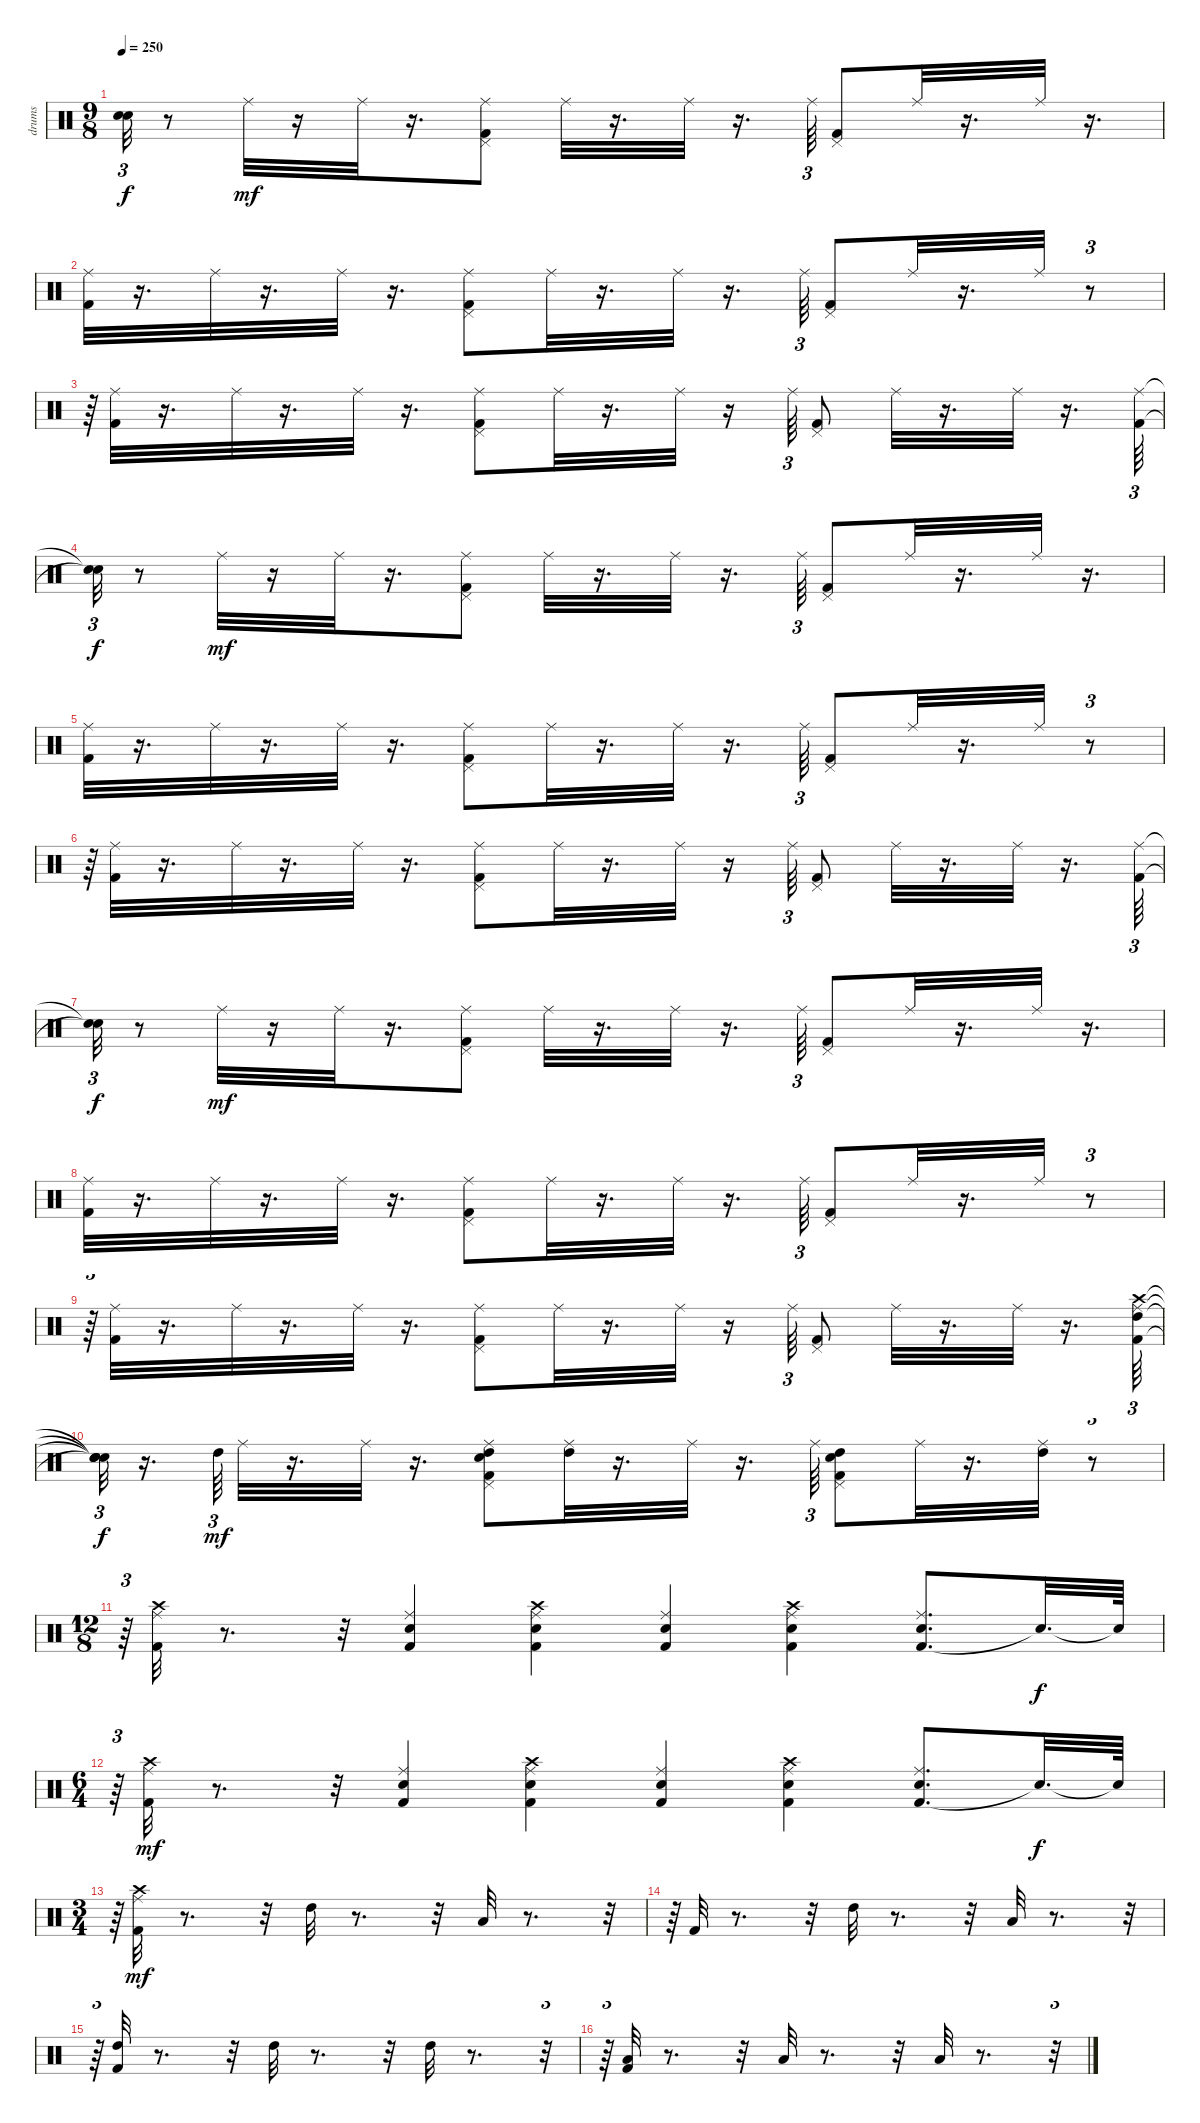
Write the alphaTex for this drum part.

\track ("drums               " "drums     ") {instrument percussion}
\staff {score}
\articulation defaults
\ts (9 8)
\tempo 250
\clef neutral
\ks c
("Snare (hit)"{t} "Snare (hit)"{t}).32{tu (3 2) dy f} r.8 "Ride (middle)".32{dy mf} r.16 "Ride (middle)".32 r.16{d} ("Pedal Hi-Hat (hit)" "Kick (hit) 2" "Ride (middle)").8 "Ride (middle)".32 r.16{d} "Ride (middle)".32 r.16{d} "Ride (middle)".64{tu (3 2)} ("Kick (hit) 2" "Pedal Hi-Hat (hit)").8 "Ride (middle)".32 r.16{d} "Ride (middle)".32 r.16{d} |
("Kick (hit) 2" "Ride (middle)").32 r.16{d} "Ride (middle)".32 r.16{d} "Ride (middle)".32 r.16{d} ("Pedal Hi-Hat (hit)" "Kick (hit) 2" "Ride (middle)").8 "Ride (middle)".32 r.16{d} "Ride (middle)".32 r.16{d} "Ride (middle)".64{tu (3 2)} ("Kick (hit) 2" "Pedal Hi-Hat (hit)").8 "Ride (middle)".32 r.16{d} "Ride (middle)".32 r.8{tu (3 2)} |
r.64{tu (3 2)} ("Kick (hit) 2" "Ride (middle)").32 r.16{d} "Ride (middle)".32 r.16{d} "Ride (middle)".32 r.16{d} ("Pedal Hi-Hat (hit)" "Kick (hit) 2" "Ride (middle)").8 "Ride (middle)".32 r.16{d} "Ride (middle)".32 r.16 "Ride (middle)".64{tu (3 2)} ("Kick (hit) 2" "Pedal Hi-Hat (hit)").8 "Ride (middle)".32 r.16{d} "Ride (middle)".32 r.16{d} ("Kick (hit) 2" "Ride (middle)").64{tu (3 2)} |
("Snare (hit)"{t} "Snare (hit)"{t}).32{tu (3 2) dy f} r.8 "Ride (middle)".32{dy mf} r.16 "Ride (middle)".32 r.16{d} ("Pedal Hi-Hat (hit)" "Kick (hit) 2" "Ride (middle)").8 "Ride (middle)".32 r.16{d} "Ride (middle)".32 r.16{d} "Ride (middle)".64{tu (3 2)} ("Kick (hit) 2" "Pedal Hi-Hat (hit)").8 "Ride (middle)".32 r.16{d} "Ride (middle)".32 r.16{d} |
("Kick (hit) 2" "Ride (middle)").32 r.16{d} "Ride (middle)".32 r.16{d} "Ride (middle)".32 r.16{d} ("Pedal Hi-Hat (hit)" "Kick (hit) 2" "Ride (middle)").8 "Ride (middle)".32 r.16{d} "Ride (middle)".32 r.16{d} "Ride (middle)".64{tu (3 2)} ("Kick (hit) 2" "Pedal Hi-Hat (hit)").8 "Ride (middle)".32 r.16{d} "Ride (middle)".32 r.8{tu (3 2)} |
r.64{tu (3 2)} ("Kick (hit) 2" "Ride (middle)").32 r.16{d} "Ride (middle)".32 r.16{d} "Ride (middle)".32 r.16{d} ("Pedal Hi-Hat (hit)" "Kick (hit) 2" "Ride (middle)").8 "Ride (middle)".32 r.16{d} "Ride (middle)".32 r.16 "Ride (middle)".64{tu (3 2)} ("Kick (hit) 2" "Pedal Hi-Hat (hit)").8 "Ride (middle)".32 r.16{d} "Ride (middle)".32 r.16{d} ("Kick (hit) 2" "Ride (middle)").64{tu (3 2)} |
("Snare (hit)"{t} "Snare (hit)"{t}).32{tu (3 2) dy f} r.8 "Ride (middle)".32{dy mf} r.16 "Ride (middle)".32 r.16{d} ("Pedal Hi-Hat (hit)" "Kick (hit) 2" "Ride (middle)").8 "Ride (middle)".32 r.16{d} "Ride (middle)".32 r.16{d} "Ride (middle)".64{tu (3 2)} ("Kick (hit) 2" "Pedal Hi-Hat (hit)").8 "Ride (middle)".32 r.16{d} "Ride (middle)".32 r.16{d} |
("Kick (hit) 2" "Ride (middle)").32 r.16{d} "Ride (middle)".32 r.16{d} "Ride (middle)".32 r.16{d} ("Pedal Hi-Hat (hit)" "Kick (hit) 2" "Ride (middle)").8 "Ride (middle)".32 r.16{d} "Ride (middle)".32 r.16{d} "Ride (middle)".64{tu (3 2)} ("Kick (hit) 2" "Pedal Hi-Hat (hit)").8 "Ride (middle)".32 r.16{d} "Ride (middle)".32 r.8{tu (3 2)} |
r.64{tu (3 2)} ("Kick (hit) 2" "Ride (middle)").32 r.16{d} "Ride (middle)".32 r.16{d} "Ride (middle)".32 r.16{d} ("Pedal Hi-Hat (hit)" "Kick (hit) 2" "Ride (middle)").8 "Ride (middle)".32 r.16{d} "Ride (middle)".32 r.16 "Ride (middle)".64{tu (3 2)} ("Kick (hit) 2" "Pedal Hi-Hat (hit)").8 "Ride (middle)".32 r.16{d} "Ride (middle)".32 r.16{d} ("Kick (hit) 2" "Crash high (hit)" "High Tom (hit)" "Ride (middle)").64{tu (3 2)} |
("Snare (hit)"{t} "Snare (hit)"{t} "Snare (hit)"{t} "Snare (hit)"{t}).32{tu (3 2) dy f} r.16{d} "High Tom (hit)".64{tu (3 2) dy mf} "Ride (middle)".32 r.16{d} "Ride (middle)".32 r.16{d} ("Pedal Hi-Hat (hit)" "Snare (hit) 2" "Kick (hit) 2" "High Tom (hit)" "Ride (middle)").8 ("High Tom (hit)" "Ride (middle)").32 r.16{d} "Ride (middle)".32 r.16{d} "Ride (middle)".64{tu (3 2)} ("Snare (hit) 2" "Kick (hit) 2" "Pedal Hi-Hat (hit)" "High Tom (hit)").8 "Ride (middle)".32 r.16{d} ("High Tom (hit)" "Ride (middle)").32 r.8{tu (3 2)} |
\ts (12 8)
r.64{tu (3 2)} ("Kick (hit) 2" "Crash high (hit)" "Ride (middle)").32 r.8{d} r.32 ("Kick (hit) 2" "Snare (hit) 2" "Ride (middle)").4 ("Kick (hit) 2" "Snare (hit) 2" "Crash high (hit)" "Ride (middle)").4 ("Kick (hit) 2" "Snare (hit) 2" "Ride (middle)").4 ("Kick (hit) 2" "Snare (hit) 2" "Crash high (hit)" "Ride (middle)").4 ("Kick (hit) 2" "Snare (hit) 2" "Ride (middle)").8{d} "Snare (hit)"{t}.32{d dy f} "Snare (hit)"{t}.64 |
\ts (6 4)
r.64{tu (3 2)} ("Kick (hit) 2" "Crash high (hit)" "Ride (middle)").32{dy mf} r.8{d} r.32 ("Kick (hit) 2" "Snare (hit) 2" "Ride (middle)").4 ("Kick (hit) 2" "Snare (hit) 2" "Crash high (hit)" "Ride (middle)").4 ("Kick (hit) 2" "Snare (hit) 2" "Ride (middle)").4 ("Kick (hit) 2" "Snare (hit) 2" "Crash high (hit)" "Ride (middle)").4 ("Kick (hit) 2" "Snare (hit) 2" "Ride (middle)").8{d} "Snare (hit)"{t}.32{d dy f} "Snare (hit)"{t}.64 |
\ts (3 4)
r.64{tu (3 2)} ("Kick (hit) 2" "Crash high (hit)" "Ride (middle)").32{dy mf volume 10} r.8{d} r.32 "High Tom (hit)".32{volume 11} r.8{d} r.32 "Low Tom (hit)".32{volume 11} r.8{d} r.32{tu (3 2)} |
r.64{tu (3 2)} "Kick (hit) 2".32{volume 12} r.8{d} r.32 "High Tom (hit)".32{volume 12} r.8{d} r.32 "Low Floor Tom (hit)".32{volume 12} r.8{d} r.32{tu (3 2)} |
r.64{tu (3 2)} ("Kick (hit) 2" "High Tom (hit)").32{volume 13} r.8{d} r.32 "High Tom (hit)".32 r.8{d} r.32 "High Tom (hit)".32 r.8{d} r.32{tu (3 2)} |
r.64{tu (3 2)} ("Kick (hit) 2" "Low Tom (hit)").32 r.8{d} r.32 "Low Tom (hit)".32 r.8{d} r.32 "Low Tom (hit)".32 r.8{d} r.32{tu (3 2)}
